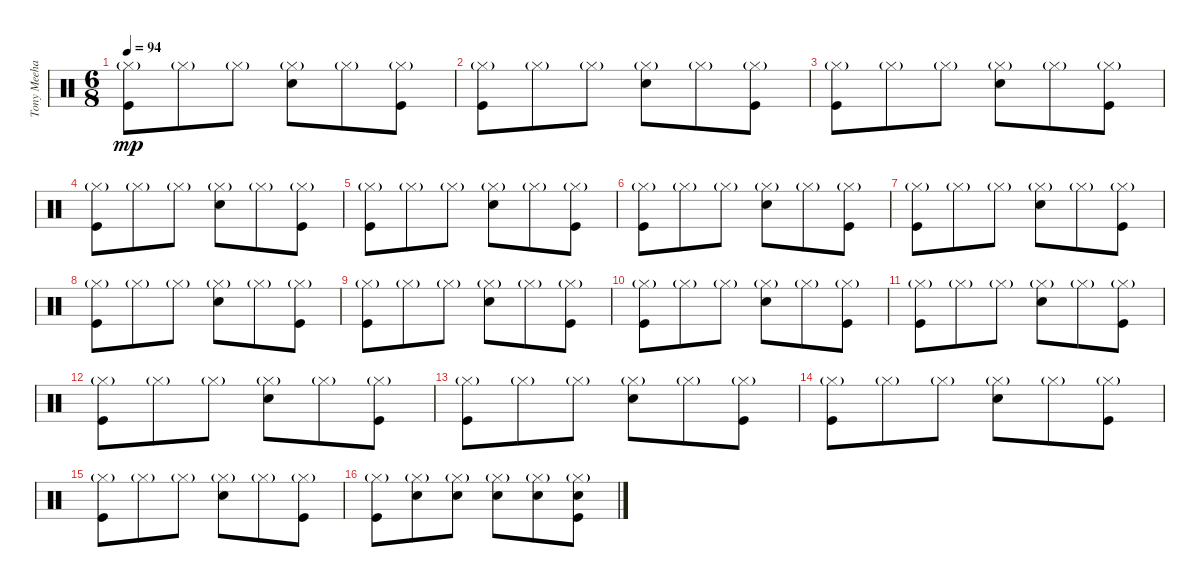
\track ("Tony Meehan (drums)" "Tony Meeha") {instrument percussion}
\staff {score}
\articulation defaults
\ts (6 8)
\tempo 94
\clef neutral
\ks c
("Kick (hit)" "Hi-Hat (closed)"{g}).8{dy mp} "Hi-Hat (closed)"{g}.8 "Hi-Hat (closed)"{g}.8 ("Electric Snare (hit)" "Hi-Hat (closed)"{g}).8 "Hi-Hat (closed)"{g}.8 ("Kick (hit)" "Hi-Hat (closed)"{g}).8 |
("Kick (hit)" "Hi-Hat (closed)"{g}).8 "Hi-Hat (closed)"{g}.8 "Hi-Hat (closed)"{g}.8 ("Electric Snare (hit)" "Hi-Hat (closed)"{g}).8 "Hi-Hat (closed)"{g}.8 ("Kick (hit)" "Hi-Hat (closed)"{g}).8 |
("Kick (hit)" "Hi-Hat (closed)"{g}).8 "Hi-Hat (closed)"{g}.8 "Hi-Hat (closed)"{g}.8 ("Electric Snare (hit)" "Hi-Hat (closed)"{g}).8 "Hi-Hat (closed)"{g}.8 ("Kick (hit)" "Hi-Hat (closed)"{g}).8 |
("Kick (hit)" "Hi-Hat (closed)"{g}).8 "Hi-Hat (closed)"{g}.8 "Hi-Hat (closed)"{g}.8 ("Electric Snare (hit)" "Hi-Hat (closed)"{g}).8 "Hi-Hat (closed)"{g}.8 ("Kick (hit)" "Hi-Hat (closed)"{g}).8 |
("Kick (hit)" "Hi-Hat (closed)"{g}).8 "Hi-Hat (closed)"{g}.8 "Hi-Hat (closed)"{g}.8 ("Electric Snare (hit)" "Hi-Hat (closed)"{g}).8 "Hi-Hat (closed)"{g}.8 ("Kick (hit)" "Hi-Hat (closed)"{g}).8 |
("Kick (hit)" "Hi-Hat (closed)"{g}).8 "Hi-Hat (closed)"{g}.8 "Hi-Hat (closed)"{g}.8 ("Electric Snare (hit)" "Hi-Hat (closed)"{g}).8 "Hi-Hat (closed)"{g}.8 ("Kick (hit)" "Hi-Hat (closed)"{g}).8 |
("Kick (hit)" "Hi-Hat (closed)"{g}).8 "Hi-Hat (closed)"{g}.8 "Hi-Hat (closed)"{g}.8 ("Electric Snare (hit)" "Hi-Hat (closed)"{g}).8 "Hi-Hat (closed)"{g}.8 ("Kick (hit)" "Hi-Hat (closed)"{g}).8 |
("Kick (hit)" "Hi-Hat (closed)"{g}).8 "Hi-Hat (closed)"{g}.8 "Hi-Hat (closed)"{g}.8 ("Electric Snare (hit)" "Hi-Hat (closed)"{g}).8 "Hi-Hat (closed)"{g}.8 ("Kick (hit)" "Hi-Hat (closed)"{g}).8 |
("Kick (hit)" "Hi-Hat (closed)"{g}).8 "Hi-Hat (closed)"{g}.8 "Hi-Hat (closed)"{g}.8 ("Electric Snare (hit)" "Hi-Hat (closed)"{g}).8 "Hi-Hat (closed)"{g}.8 ("Kick (hit)" "Hi-Hat (closed)"{g}).8 |
("Kick (hit)" "Hi-Hat (closed)"{g}).8 "Hi-Hat (closed)"{g}.8 "Hi-Hat (closed)"{g}.8 ("Electric Snare (hit)" "Hi-Hat (closed)"{g}).8 "Hi-Hat (closed)"{g}.8 ("Kick (hit)" "Hi-Hat (closed)"{g}).8 |
("Kick (hit)" "Hi-Hat (closed)"{g}).8 "Hi-Hat (closed)"{g}.8 "Hi-Hat (closed)"{g}.8 ("Electric Snare (hit)" "Hi-Hat (closed)"{g}).8 "Hi-Hat (closed)"{g}.8 ("Kick (hit)" "Hi-Hat (closed)"{g}).8 |
("Kick (hit)" "Hi-Hat (closed)"{g}).8 "Hi-Hat (closed)"{g}.8 "Hi-Hat (closed)"{g}.8 ("Electric Snare (hit)" "Hi-Hat (closed)"{g}).8 "Hi-Hat (closed)"{g}.8 ("Kick (hit)" "Hi-Hat (closed)"{g}).8 |
("Kick (hit)" "Hi-Hat (closed)"{g}).8 "Hi-Hat (closed)"{g}.8 "Hi-Hat (closed)"{g}.8 ("Electric Snare (hit)" "Hi-Hat (closed)"{g}).8 "Hi-Hat (closed)"{g}.8 ("Kick (hit)" "Hi-Hat (closed)"{g}).8 |
("Kick (hit)" "Hi-Hat (closed)"{g}).8 "Hi-Hat (closed)"{g}.8 "Hi-Hat (closed)"{g}.8 ("Electric Snare (hit)" "Hi-Hat (closed)"{g}).8 "Hi-Hat (closed)"{g}.8 ("Kick (hit)" "Hi-Hat (closed)"{g}).8 |
("Kick (hit)" "Hi-Hat (closed)"{g}).8 "Hi-Hat (closed)"{g}.8 "Hi-Hat (closed)"{g}.8 ("Electric Snare (hit)" "Hi-Hat (closed)"{g}).8 "Hi-Hat (closed)"{g}.8 ("Kick (hit)" "Hi-Hat (closed)"{g}).8 |
("Kick (hit)" "Hi-Hat (closed)"{g}).8 ("Electric Snare (hit)" "Hi-Hat (closed)"{g}).8 ("Electric Snare (hit)" "Hi-Hat (closed)"{g}).8 ("Electric Snare (hit)" "Hi-Hat (closed)"{g}).8 ("Electric Snare (hit)" "Hi-Hat (closed)"{g}).8 ("Kick (hit)" "Electric Snare (hit)" "Hi-Hat (closed)"{g}).8
